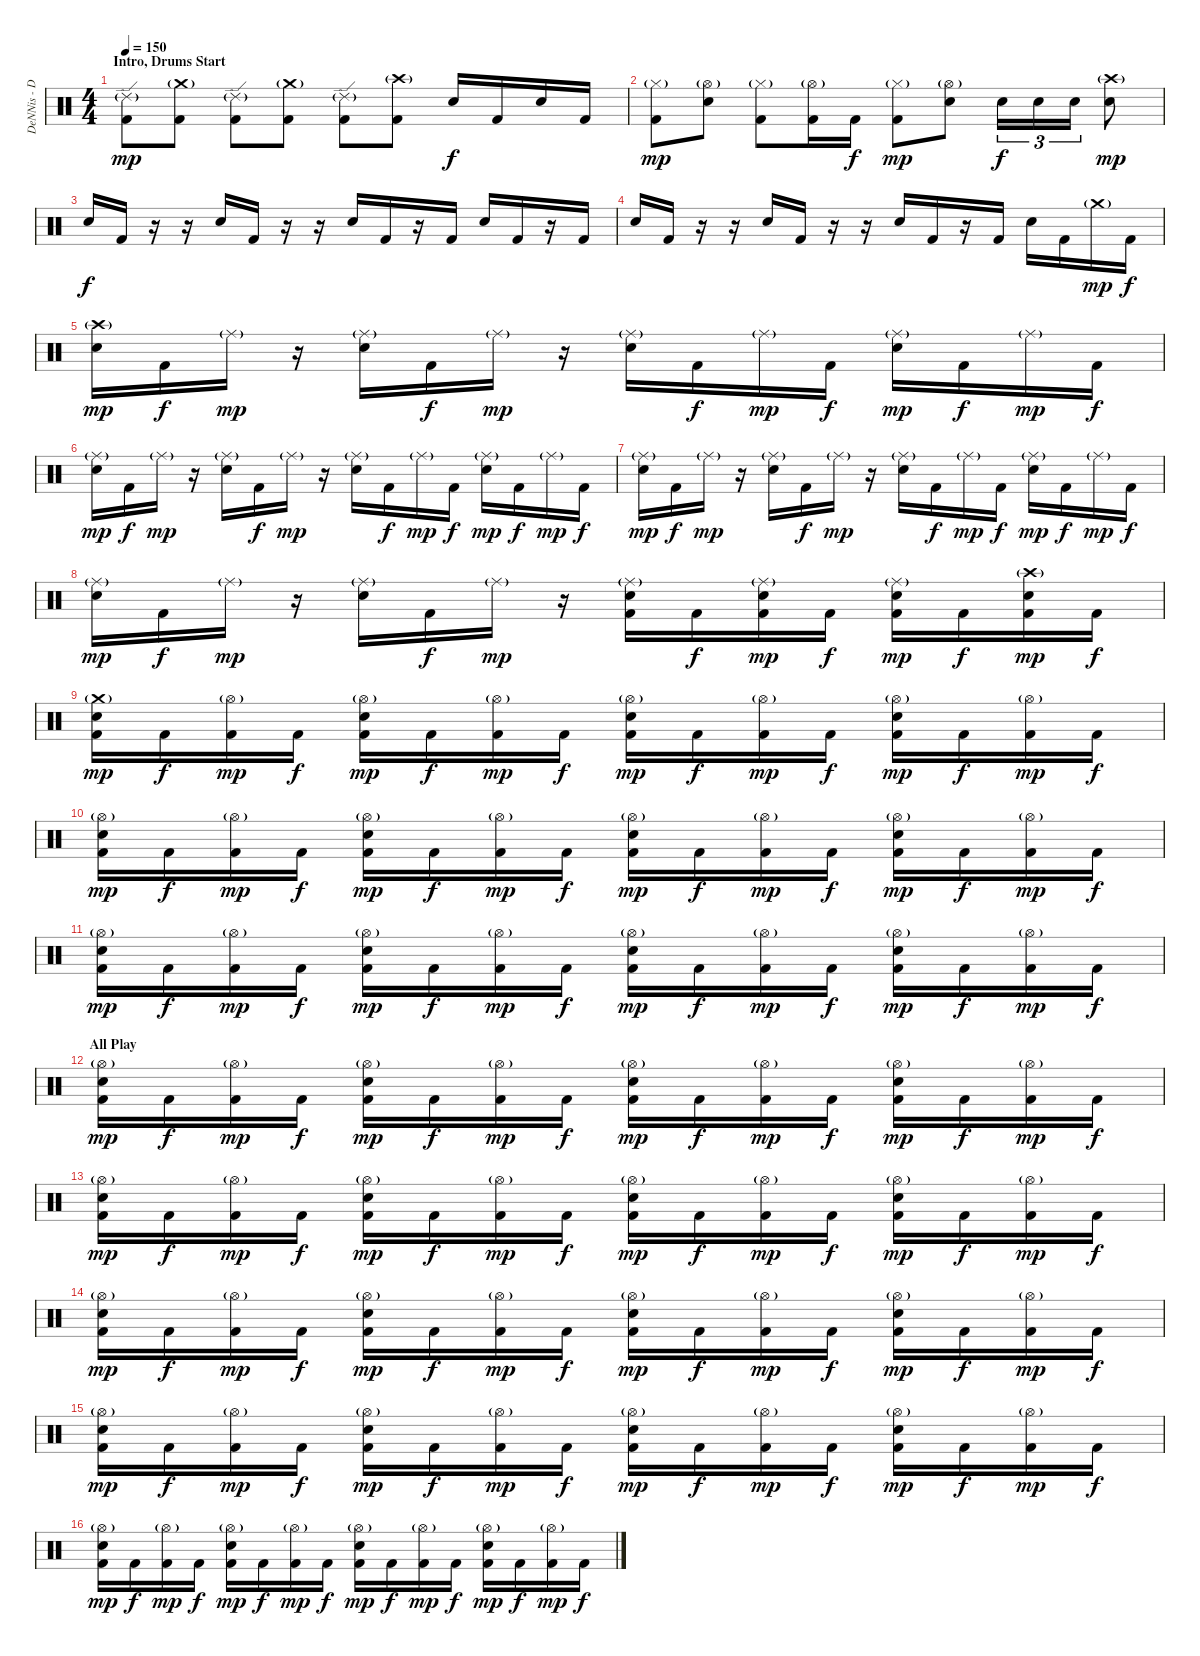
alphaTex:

\track ("DeNNis - Drums" "DeNNis - D") {instrument percussion}
\staff {score}
\articulation defaults
\ts (4 4)
\section ("" "Intro, Drums Start")
\tempo 150
\clef neutral
\ks c
("Ride (edge) 2"{g} "Kick (hit) 2").8{dy mp} ("Crash medium (hit)"{g} "Kick (hit) 2").8 ("Ride (edge) 2"{g} "Kick (hit) 2").8 ("Crash medium (hit)"{g} "Kick (hit) 2").8 ("Ride (edge) 2"{g} "Kick (hit) 2").8 ("Crash high (hit)"{g} "Kick (hit) 2").8 "Electric Snare (hit)".16{dy f} "Kick (hit) 2".16 "Electric Snare (hit)".16 "Kick (hit) 2".16 |
("Hi-Hat (closed)"{g} "Kick (hit) 2").8{dy mp} ("Hi-Hat (open)"{g} "Electric Snare (hit)").8 ("Hi-Hat (closed)"{g} "Kick (hit) 2").8 ("Hi-Hat (open)"{g} "Kick (hit) 2").16 "Kick (hit) 2".16{dy f} ("Hi-Hat (closed)"{g} "Kick (hit) 2").8{dy mp} ("Hi-Hat (open)"{g} "Electric Snare (hit)").8 "Electric Snare (hit)".16{tu (3 2) dy f} "Electric Snare (hit)".16{tu (3 2)} "Electric Snare (hit)".16{tu (3 2)} ("Crash high (hit)"{g} "Electric Snare (hit)").8{dy mp} |
"Electric Snare (hit)".16{dy f} "Kick (hit) 2".16 r.16 r.16 "Electric Snare (hit)".16 "Kick (hit) 2".16 r.16 r.16 "Electric Snare (hit)".16 "Kick (hit) 2".16 r.16 "Kick (hit) 2".16 "Electric Snare (hit)".16 "Kick (hit) 2".16 r.16 "Kick (hit) 2".16 |
"Electric Snare (hit)".16 "Kick (hit) 2".16 r.16 r.16 "Electric Snare (hit)".16 "Kick (hit) 2".16 r.16 r.16 "Electric Snare (hit)".16 "Kick (hit) 2".16 r.16 "Kick (hit) 2".16 "Electric Snare (hit)".16 "Kick (hit) 2".16 "Crash medium (hit)"{g}.16{dy mp} "Kick (hit) 2".16{dy f} |
("Crash high (hit)"{g} "Electric Snare (hit)").16{dy mp} "Kick (hit) 2".16{dy f} "Ride (middle)"{g}.16{dy mp} r.16 ("Ride (middle)"{g} "Electric Snare (hit)").16 "Kick (hit) 2".16{dy f} "Ride (middle)"{g}.16{dy mp} r.16 ("Ride (middle)"{g} "Electric Snare (hit)").16 "Kick (hit) 2".16{dy f} "Ride (middle)"{g}.16{dy mp} "Kick (hit) 2".16{dy f} ("Ride (middle)"{g} "Electric Snare (hit)").16{dy mp} "Kick (hit) 2".16{dy f} "Ride (middle)"{g}.16{dy mp} "Kick (hit) 2".16{dy f} |
("Ride (middle)"{g} "Electric Snare (hit)").16{dy mp} "Kick (hit) 2".16{dy f} "Ride (middle)"{g}.16{dy mp} r.16 ("Ride (middle)"{g} "Electric Snare (hit)").16 "Kick (hit) 2".16{dy f} "Ride (middle)"{g}.16{dy mp} r.16 ("Ride (middle)"{g} "Electric Snare (hit)").16 "Kick (hit) 2".16{dy f} "Ride (middle)"{g}.16{dy mp} "Kick (hit) 2".16{dy f} ("Ride (middle)"{g} "Electric Snare (hit)").16{dy mp} "Kick (hit) 2".16{dy f} "Ride (middle)"{g}.16{dy mp} "Kick (hit) 2".16{dy f} |
("Ride (middle)"{g} "Electric Snare (hit)").16{dy mp} "Kick (hit) 2".16{dy f} "Ride (middle)"{g}.16{dy mp} r.16 ("Ride (middle)"{g} "Electric Snare (hit)").16 "Kick (hit) 2".16{dy f} "Ride (middle)"{g}.16{dy mp} r.16 ("Ride (middle)"{g} "Electric Snare (hit)").16 "Kick (hit) 2".16{dy f} "Ride (middle)"{g}.16{dy mp} "Kick (hit) 2".16{dy f} ("Ride (middle)"{g} "Electric Snare (hit)").16{dy mp} "Kick (hit) 2".16{dy f} "Ride (middle)"{g}.16{dy mp} "Kick (hit) 2".16{dy f} |
\section ("" "")
("Ride (middle)"{g} "Electric Snare (hit)").16{dy mp} "Kick (hit) 2".16{dy f} "Ride (middle)"{g}.16{dy mp} r.16 ("Ride (middle)"{g} "Electric Snare (hit)").16 "Kick (hit) 2".16{dy f} "Ride (middle)"{g}.16{dy mp} r.16 ("Ride (middle)"{g} "Electric Snare (hit)" "Kick (hit) 2").16 "Kick (hit) 2".16{dy f} ("Ride (middle)"{g} "Electric Snare (hit)" "Kick (hit) 2").16{dy mp} "Kick (hit) 2".16{dy f} ("Ride (middle)"{g} "Electric Snare (hit)" "Kick (hit) 2").16{dy mp} "Kick (hit) 2".16{dy f} ("Crash high (hit)"{g} "Electric Snare (hit)" "Kick (hit) 2").16{dy mp} "Kick (hit) 2".16{dy f} |
("Crash medium (hit)"{g} "Electric Snare (hit)" "Kick (hit) 2").16{dy mp} "Kick (hit) 2".16{dy f} ("Hi-Hat (open)"{g} "Kick (hit) 2").16{dy mp} "Kick (hit) 2".16{dy f} ("Hi-Hat (open)"{g} "Electric Snare (hit)" "Kick (hit) 2").16{dy mp} "Kick (hit) 2".16{dy f} ("Hi-Hat (open)"{g} "Kick (hit) 2").16{dy mp} "Kick (hit) 2".16{dy f} ("Hi-Hat (open)"{g} "Electric Snare (hit)" "Kick (hit) 2").16{dy mp} "Kick (hit) 2".16{dy f} ("Hi-Hat (open)"{g} "Kick (hit) 2").16{dy mp} "Kick (hit) 2".16{dy f} ("Hi-Hat (open)"{g} "Electric Snare (hit)" "Kick (hit) 2").16{dy mp} "Kick (hit) 2".16{dy f} ("Hi-Hat (open)"{g} "Kick (hit) 2").16{dy mp} "Kick (hit) 2".16{dy f} |
\section ("" "")
("Hi-Hat (open)"{g} "Electric Snare (hit)" "Kick (hit) 2").16{dy mp} "Kick (hit) 2".16{dy f} ("Hi-Hat (open)"{g} "Kick (hit) 2").16{dy mp} "Kick (hit) 2".16{dy f} ("Hi-Hat (open)"{g} "Electric Snare (hit)" "Kick (hit) 2").16{dy mp} "Kick (hit) 2".16{dy f} ("Hi-Hat (open)"{g} "Kick (hit) 2").16{dy mp} "Kick (hit) 2".16{dy f} ("Hi-Hat (open)"{g} "Electric Snare (hit)" "Kick (hit) 2").16{dy mp} "Kick (hit) 2".16{dy f} ("Hi-Hat (open)"{g} "Kick (hit) 2").16{dy mp} "Kick (hit) 2".16{dy f} ("Hi-Hat (open)"{g} "Electric Snare (hit)" "Kick (hit) 2").16{dy mp} "Kick (hit) 2".16{dy f} ("Hi-Hat (open)"{g} "Kick (hit) 2").16{dy mp} "Kick (hit) 2".16{dy f} |
("Hi-Hat (open)"{g} "Electric Snare (hit)" "Kick (hit) 2").16{dy mp} "Kick (hit) 2".16{dy f} ("Hi-Hat (open)"{g} "Kick (hit) 2").16{dy mp} "Kick (hit) 2".16{dy f} ("Hi-Hat (open)"{g} "Electric Snare (hit)" "Kick (hit) 2").16{dy mp} "Kick (hit) 2".16{dy f} ("Hi-Hat (open)"{g} "Kick (hit) 2").16{dy mp} "Kick (hit) 2".16{dy f} ("Hi-Hat (open)"{g} "Electric Snare (hit)" "Kick (hit) 2").16{dy mp} "Kick (hit) 2".16{dy f} ("Hi-Hat (open)"{g} "Kick (hit) 2").16{dy mp} "Kick (hit) 2".16{dy f} ("Hi-Hat (open)"{g} "Electric Snare (hit)" "Kick (hit) 2").16{dy mp} "Kick (hit) 2".16{dy f} ("Hi-Hat (open)"{g} "Kick (hit) 2").16{dy mp} "Kick (hit) 2".16{dy f} |
\section ("" "All Play")
("Hi-Hat (open)"{g} "Electric Snare (hit)" "Kick (hit) 2").16{dy mp} "Kick (hit) 2".16{dy f} ("Hi-Hat (open)"{g} "Kick (hit) 2").16{dy mp} "Kick (hit) 2".16{dy f} ("Hi-Hat (open)"{g} "Electric Snare (hit)" "Kick (hit) 2").16{dy mp} "Kick (hit) 2".16{dy f} ("Hi-Hat (open)"{g} "Kick (hit) 2").16{dy mp} "Kick (hit) 2".16{dy f} ("Hi-Hat (open)"{g} "Electric Snare (hit)" "Kick (hit) 2").16{dy mp} "Kick (hit) 2".16{dy f} ("Hi-Hat (open)"{g} "Kick (hit) 2").16{dy mp} "Kick (hit) 2".16{dy f} ("Hi-Hat (open)"{g} "Electric Snare (hit)" "Kick (hit) 2").16{dy mp} "Kick (hit) 2".16{dy f} ("Hi-Hat (open)"{g} "Kick (hit) 2").16{dy mp} "Kick (hit) 2".16{dy f} |
("Hi-Hat (open)"{g} "Electric Snare (hit)" "Kick (hit) 2").16{dy mp} "Kick (hit) 2".16{dy f} ("Hi-Hat (open)"{g} "Kick (hit) 2").16{dy mp} "Kick (hit) 2".16{dy f} ("Hi-Hat (open)"{g} "Electric Snare (hit)" "Kick (hit) 2").16{dy mp} "Kick (hit) 2".16{dy f} ("Hi-Hat (open)"{g} "Kick (hit) 2").16{dy mp} "Kick (hit) 2".16{dy f} ("Hi-Hat (open)"{g} "Electric Snare (hit)" "Kick (hit) 2").16{dy mp} "Kick (hit) 2".16{dy f} ("Hi-Hat (open)"{g} "Kick (hit) 2").16{dy mp} "Kick (hit) 2".16{dy f} ("Hi-Hat (open)"{g} "Electric Snare (hit)" "Kick (hit) 2").16{dy mp} "Kick (hit) 2".16{dy f} ("Hi-Hat (open)"{g} "Kick (hit) 2").16{dy mp} "Kick (hit) 2".16{dy f} |
("Hi-Hat (open)"{g} "Electric Snare (hit)" "Kick (hit) 2").16{dy mp} "Kick (hit) 2".16{dy f} ("Hi-Hat (open)"{g} "Kick (hit) 2").16{dy mp} "Kick (hit) 2".16{dy f} ("Hi-Hat (open)"{g} "Electric Snare (hit)" "Kick (hit) 2").16{dy mp} "Kick (hit) 2".16{dy f} ("Hi-Hat (open)"{g} "Kick (hit) 2").16{dy mp} "Kick (hit) 2".16{dy f} ("Hi-Hat (open)"{g} "Electric Snare (hit)" "Kick (hit) 2").16{dy mp} "Kick (hit) 2".16{dy f} ("Hi-Hat (open)"{g} "Kick (hit) 2").16{dy mp} "Kick (hit) 2".16{dy f} ("Hi-Hat (open)"{g} "Electric Snare (hit)" "Kick (hit) 2").16{dy mp} "Kick (hit) 2".16{dy f} ("Hi-Hat (open)"{g} "Kick (hit) 2").16{dy mp} "Kick (hit) 2".16{dy f} |
("Hi-Hat (open)"{g} "Electric Snare (hit)" "Kick (hit) 2").16{dy mp} "Kick (hit) 2".16{dy f} ("Hi-Hat (open)"{g} "Kick (hit) 2").16{dy mp} "Kick (hit) 2".16{dy f} ("Hi-Hat (open)"{g} "Electric Snare (hit)" "Kick (hit) 2").16{dy mp} "Kick (hit) 2".16{dy f} ("Hi-Hat (open)"{g} "Kick (hit) 2").16{dy mp} "Kick (hit) 2".16{dy f} ("Hi-Hat (open)"{g} "Electric Snare (hit)" "Kick (hit) 2").16{dy mp} "Kick (hit) 2".16{dy f} ("Hi-Hat (open)"{g} "Kick (hit) 2").16{dy mp} "Kick (hit) 2".16{dy f} ("Hi-Hat (open)"{g} "Electric Snare (hit)" "Kick (hit) 2").16{dy mp} "Kick (hit) 2".16{dy f} ("Hi-Hat (open)"{g} "Kick (hit) 2").16{dy mp} "Kick (hit) 2".16{dy f} |
("Hi-Hat (open)"{g} "Electric Snare (hit)" "Kick (hit) 2").16{dy mp} "Kick (hit) 2".16{dy f} ("Hi-Hat (open)"{g} "Kick (hit) 2").16{dy mp} "Kick (hit) 2".16{dy f} ("Hi-Hat (open)"{g} "Electric Snare (hit)" "Kick (hit) 2").16{dy mp} "Kick (hit) 2".16{dy f} ("Hi-Hat (open)"{g} "Kick (hit) 2").16{dy mp} "Kick (hit) 2".16{dy f} ("Hi-Hat (open)"{g} "Electric Snare (hit)" "Kick (hit) 2").16{dy mp} "Kick (hit) 2".16{dy f} ("Hi-Hat (open)"{g} "Kick (hit) 2").16{dy mp} "Kick (hit) 2".16{dy f} ("Hi-Hat (open)"{g} "Electric Snare (hit)" "Kick (hit) 2").16{dy mp} "Kick (hit) 2".16{dy f} ("Hi-Hat (open)"{g} "Kick (hit) 2").16{dy mp} "Kick (hit) 2".16{dy f}
